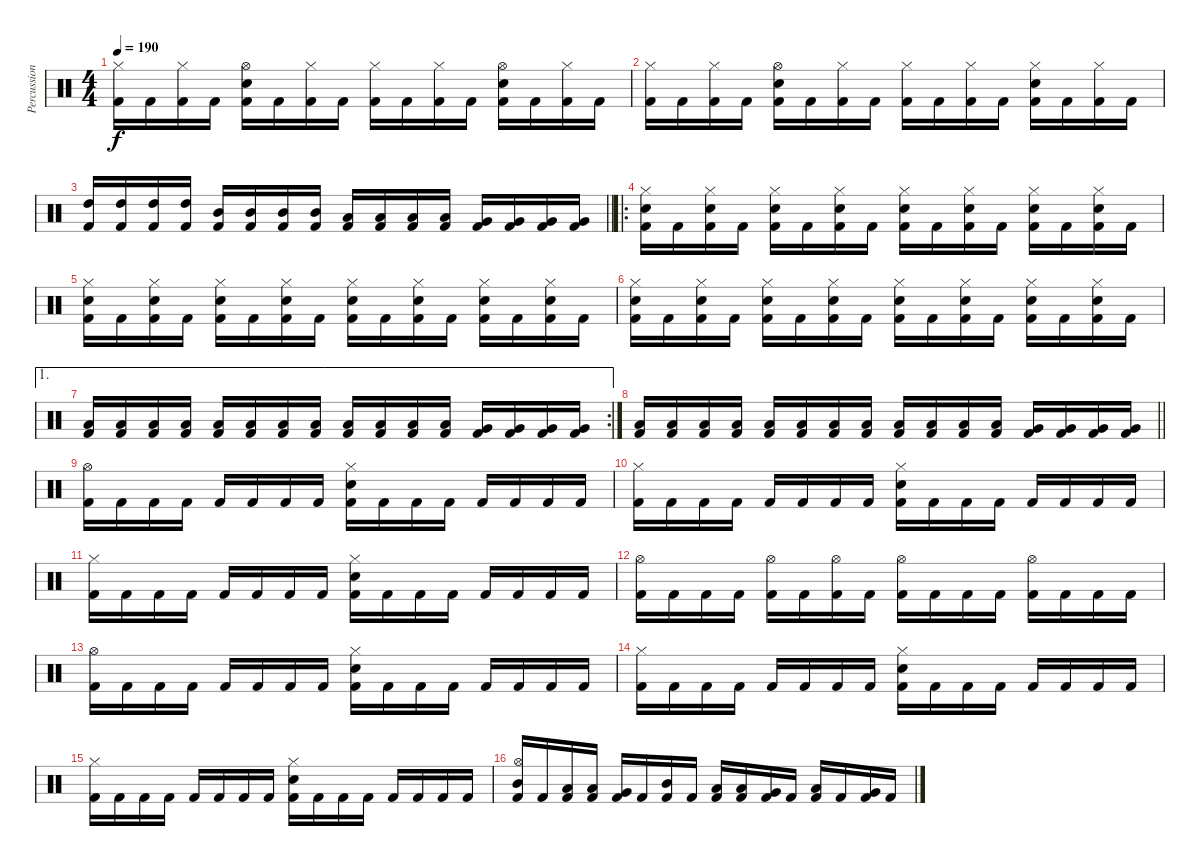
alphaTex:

\track ("Percussion" "Percussion") {instrument percussion}
\staff {score}
\articulation defaults
\ts (4 4)
\tempo 190
\clef neutral
\ks c
("Hi-Hat (closed)" "Kick (hit) 2").16{dy f} "Kick (hit) 2".16 ("Hi-Hat (closed)" "Kick (hit) 2").16 "Kick (hit) 2".16 ("Hi-Hat (open)" "Snare (hit) 2" "Kick (hit) 2").16 "Kick (hit) 2".16 ("Hi-Hat (closed)" "Kick (hit) 2").16 "Kick (hit) 2".16 ("Hi-Hat (closed)" "Kick (hit) 2").16 "Kick (hit) 2".16 ("Hi-Hat (closed)" "Kick (hit) 2").16 "Kick (hit) 2".16 ("Hi-Hat (open)" "Snare (hit) 2" "Kick (hit) 2").16 "Kick (hit) 2".16 ("Hi-Hat (closed)" "Kick (hit) 2").16 "Kick (hit) 2".16 |
("Hi-Hat (closed)" "Kick (hit) 2").16 "Kick (hit) 2".16 ("Hi-Hat (closed)" "Kick (hit) 2").16 "Kick (hit) 2".16 ("Hi-Hat (open)" "Snare (hit) 2" "Kick (hit) 2").16 "Kick (hit) 2".16 ("Hi-Hat (closed)" "Kick (hit) 2").16 "Kick (hit) 2".16 ("Hi-Hat (closed)" "Kick (hit) 2").16 "Kick (hit) 2".16 ("Hi-Hat (closed)" "Kick (hit) 2").16 "Kick (hit) 2".16 ("Hi-Hat (closed)" "Snare (hit) 2" "Kick (hit) 2").16 "Kick (hit) 2".16 ("Hi-Hat (closed)" "Kick (hit) 2").16 "Kick (hit) 2".16 |
\barLineRight lightlight
("High Tom (hit)" "Kick (hit) 2").16 ("High Tom (hit)" "Kick (hit) 2").16 ("High Tom (hit)" "Kick (hit) 2").16 ("High Tom (hit)" "Kick (hit) 2").16 ("Mid Tom (hit)" "Kick (hit) 2").16 ("Mid Tom (hit)" "Kick (hit) 2").16 ("Mid Tom (hit)" "Kick (hit) 2").16 ("Mid Tom (hit)" "Kick (hit) 2").16 ("Low Tom (hit)" "Kick (hit) 2").16 ("Low Tom (hit)" "Kick (hit) 2").16 ("Low Tom (hit)" "Kick (hit) 2").16 ("Low Tom (hit)" "Kick (hit) 2").16 ("Very Low Tom (hit)" "Kick (hit) 2").16 ("Very Low Tom (hit)" "Kick (hit) 2").16 ("Very Low Tom (hit)" "Kick (hit) 2").16 ("Very Low Tom (hit)" "Kick (hit) 2").16 |
\ro
\section ("" "")
("Hi-Hat (closed)" "Snare (hit) 2" "Kick (hit) 2").16 "Kick (hit) 2".16 ("Hi-Hat (closed)" "Snare (hit) 2" "Kick (hit) 2").16 "Kick (hit) 2".16 ("Hi-Hat (closed)" "Snare (hit) 2" "Kick (hit) 2").16 "Kick (hit) 2".16 ("Hi-Hat (closed)" "Snare (hit) 2" "Kick (hit) 2").16 "Kick (hit) 2".16 ("Hi-Hat (closed)" "Snare (hit) 2" "Kick (hit) 2").16 "Kick (hit) 2".16 ("Hi-Hat (closed)" "Snare (hit) 2" "Kick (hit) 2").16 "Kick (hit) 2".16 ("Hi-Hat (closed)" "Snare (hit) 2" "Kick (hit) 2").16 "Kick (hit) 2".16 ("Hi-Hat (closed)" "Snare (hit) 2" "Kick (hit) 2").16 "Kick (hit) 2".16 |
("Hi-Hat (closed)" "Snare (hit) 2" "Kick (hit) 2").16 "Kick (hit) 2".16 ("Hi-Hat (closed)" "Snare (hit) 2" "Kick (hit) 2").16 "Kick (hit) 2".16 ("Hi-Hat (closed)" "Snare (hit) 2" "Kick (hit) 2").16 "Kick (hit) 2".16 ("Hi-Hat (closed)" "Snare (hit) 2" "Kick (hit) 2").16 "Kick (hit) 2".16 ("Hi-Hat (closed)" "Snare (hit) 2" "Kick (hit) 2").16 "Kick (hit) 2".16 ("Hi-Hat (closed)" "Snare (hit) 2" "Kick (hit) 2").16 "Kick (hit) 2".16 ("Hi-Hat (closed)" "Snare (hit) 2" "Kick (hit) 2").16 "Kick (hit) 2".16 ("Hi-Hat (closed)" "Snare (hit) 2" "Kick (hit) 2").16 "Kick (hit) 2".16 |
("Hi-Hat (closed)" "Snare (hit) 2" "Kick (hit) 2").16 "Kick (hit) 2".16 ("Hi-Hat (closed)" "Snare (hit) 2" "Kick (hit) 2").16 "Kick (hit) 2".16 ("Hi-Hat (closed)" "Snare (hit) 2" "Kick (hit) 2").16 "Kick (hit) 2".16 ("Hi-Hat (closed)" "Snare (hit) 2" "Kick (hit) 2").16 "Kick (hit) 2".16 ("Hi-Hat (closed)" "Snare (hit) 2" "Kick (hit) 2").16 "Kick (hit) 2".16 ("Hi-Hat (closed)" "Snare (hit) 2" "Kick (hit) 2").16 "Kick (hit) 2".16 ("Hi-Hat (closed)" "Snare (hit) 2" "Kick (hit) 2").16 "Kick (hit) 2".16 ("Hi-Hat (closed)" "Snare (hit) 2" "Kick (hit) 2").16 "Kick (hit) 2".16 |
\ae 1
\rc 2
("Low Tom (hit)" "Kick (hit) 2").16 ("Low Tom (hit)" "Kick (hit) 2").16 ("Low Tom (hit)" "Kick (hit) 2").16 ("Low Tom (hit)" "Kick (hit) 2").16 ("Low Tom (hit)" "Kick (hit) 2").16 ("Low Tom (hit)" "Kick (hit) 2").16 ("Low Tom (hit)" "Kick (hit) 2").16 ("Low Tom (hit)" "Kick (hit) 2").16 ("Low Tom (hit)" "Kick (hit) 2").16 ("Low Tom (hit)" "Kick (hit) 2").16 ("Low Tom (hit)" "Kick (hit) 2").16 ("Low Tom (hit)" "Kick (hit) 2").16 ("Very Low Tom (hit)" "Kick (hit) 2").16 ("Very Low Tom (hit)" "Kick (hit) 2").16 ("Very Low Tom (hit)" "Kick (hit) 2").16 ("Very Low Tom (hit)" "Kick (hit) 2").16 |
\barLineRight lightlight
("Low Tom (hit)" "Kick (hit) 2").16 ("Low Tom (hit)" "Kick (hit) 2").16 ("Low Tom (hit)" "Kick (hit) 2").16 ("Low Tom (hit)" "Kick (hit) 2").16 ("Low Tom (hit)" "Kick (hit) 2").16 ("Low Tom (hit)" "Kick (hit) 2").16 ("Low Tom (hit)" "Kick (hit) 2").16 ("Low Tom (hit)" "Kick (hit) 2").16 ("Low Tom (hit)" "Kick (hit) 2").16 ("Low Tom (hit)" "Kick (hit) 2").16 ("Low Tom (hit)" "Kick (hit) 2").16 ("Low Tom (hit)" "Kick (hit) 2").16 ("Very Low Tom (hit)" "Kick (hit) 2").16 ("Very Low Tom (hit)" "Kick (hit) 2").16 ("Very Low Tom (hit)" "Kick (hit) 2").16 ("Very Low Tom (hit)" "Kick (hit) 2").16 |
("Hi-Hat (open)" "Kick (hit) 2").16 "Kick (hit) 2".16 "Kick (hit) 2".16 "Kick (hit) 2".16 "Kick (hit) 2".16 "Kick (hit) 2".16 "Kick (hit) 2".16 "Kick (hit) 2".16 ("Hi-Hat (closed)" "Snare (hit) 2" "Kick (hit) 2").16 "Kick (hit) 2".16 "Kick (hit) 2".16 "Kick (hit) 2".16 "Kick (hit) 2".16 "Kick (hit) 2".16 "Kick (hit) 2".16 "Kick (hit) 2".16 |
("Hi-Hat (closed)" "Kick (hit) 2").16 "Kick (hit) 2".16 "Kick (hit) 2".16 "Kick (hit) 2".16 "Kick (hit) 2".16 "Kick (hit) 2".16 "Kick (hit) 2".16 "Kick (hit) 2".16 ("Hi-Hat (closed)" "Snare (hit) 2" "Kick (hit) 2").16 "Kick (hit) 2".16 "Kick (hit) 2".16 "Kick (hit) 2".16 "Kick (hit) 2".16 "Kick (hit) 2".16 "Kick (hit) 2".16 "Kick (hit) 2".16 |
("Hi-Hat (closed)" "Kick (hit) 2").16 "Kick (hit) 2".16 "Kick (hit) 2".16 "Kick (hit) 2".16 "Kick (hit) 2".16 "Kick (hit) 2".16 "Kick (hit) 2".16 "Kick (hit) 2".16 ("Hi-Hat (closed)" "Snare (hit) 2" "Kick (hit) 2").16 "Kick (hit) 2".16 "Kick (hit) 2".16 "Kick (hit) 2".16 "Kick (hit) 2".16 "Kick (hit) 2".16 "Kick (hit) 2".16 "Kick (hit) 2".16 |
("Hi-Hat (open)" "Kick (hit) 2").16 "Kick (hit) 2".16 "Kick (hit) 2".16 "Kick (hit) 2".16 ("Hi-Hat (open)" "Kick (hit) 2").16 "Kick (hit) 2".16 ("Hi-Hat (open)" "Kick (hit) 2").16 "Kick (hit) 2".16 ("Hi-Hat (open)" "Kick (hit) 2").16 "Kick (hit) 2".16 "Kick (hit) 2".16 "Kick (hit) 2".16 ("Hi-Hat (open)" "Kick (hit) 2").16 "Kick (hit) 2".16 "Kick (hit) 2".16 "Kick (hit) 2".16 |
("Hi-Hat (open)" "Kick (hit) 2").16 "Kick (hit) 2".16 "Kick (hit) 2".16 "Kick (hit) 2".16 "Kick (hit) 2".16 "Kick (hit) 2".16 "Kick (hit) 2".16 "Kick (hit) 2".16 ("Hi-Hat (closed)" "Snare (hit) 2" "Kick (hit) 2").16 "Kick (hit) 2".16 "Kick (hit) 2".16 "Kick (hit) 2".16 "Kick (hit) 2".16 "Kick (hit) 2".16 "Kick (hit) 2".16 "Kick (hit) 2".16 |
("Hi-Hat (closed)" "Kick (hit) 2").16 "Kick (hit) 2".16 "Kick (hit) 2".16 "Kick (hit) 2".16 "Kick (hit) 2".16 "Kick (hit) 2".16 "Kick (hit) 2".16 "Kick (hit) 2".16 ("Hi-Hat (closed)" "Snare (hit) 2" "Kick (hit) 2").16 "Kick (hit) 2".16 "Kick (hit) 2".16 "Kick (hit) 2".16 "Kick (hit) 2".16 "Kick (hit) 2".16 "Kick (hit) 2".16 "Kick (hit) 2".16 |
("Hi-Hat (closed)" "Kick (hit) 2").16 "Kick (hit) 2".16 "Kick (hit) 2".16 "Kick (hit) 2".16 "Kick (hit) 2".16 "Kick (hit) 2".16 "Kick (hit) 2".16 "Kick (hit) 2".16 ("Hi-Hat (closed)" "Snare (hit) 2" "Kick (hit) 2").16 "Kick (hit) 2".16 "Kick (hit) 2".16 "Kick (hit) 2".16 "Kick (hit) 2".16 "Kick (hit) 2".16 "Kick (hit) 2".16 "Kick (hit) 2".16 |
("Hi-Hat (open)" "Mid Tom (hit)" "Kick (hit) 2").16 "Kick (hit) 2".16 ("Low Tom (hit)" "Kick (hit) 2").16 ("Low Tom (hit)" "Kick (hit) 2").16 ("Very Low Tom (hit)" "Kick (hit) 2").16 "Kick (hit) 2".16 ("Mid Tom (hit)" "Kick (hit) 2").16 "Kick (hit) 2".16 ("Low Tom (hit)" "Kick (hit) 2").16 ("Low Tom (hit)" "Kick (hit) 2").16 ("Very Low Tom (hit)" "Kick (hit) 2").16 "Kick (hit) 2".16 ("Low Tom (hit)" "Kick (hit) 2").16 "Kick (hit) 2".16 ("Very Low Tom (hit)" "Kick (hit) 2").16 "Kick (hit) 2".16
